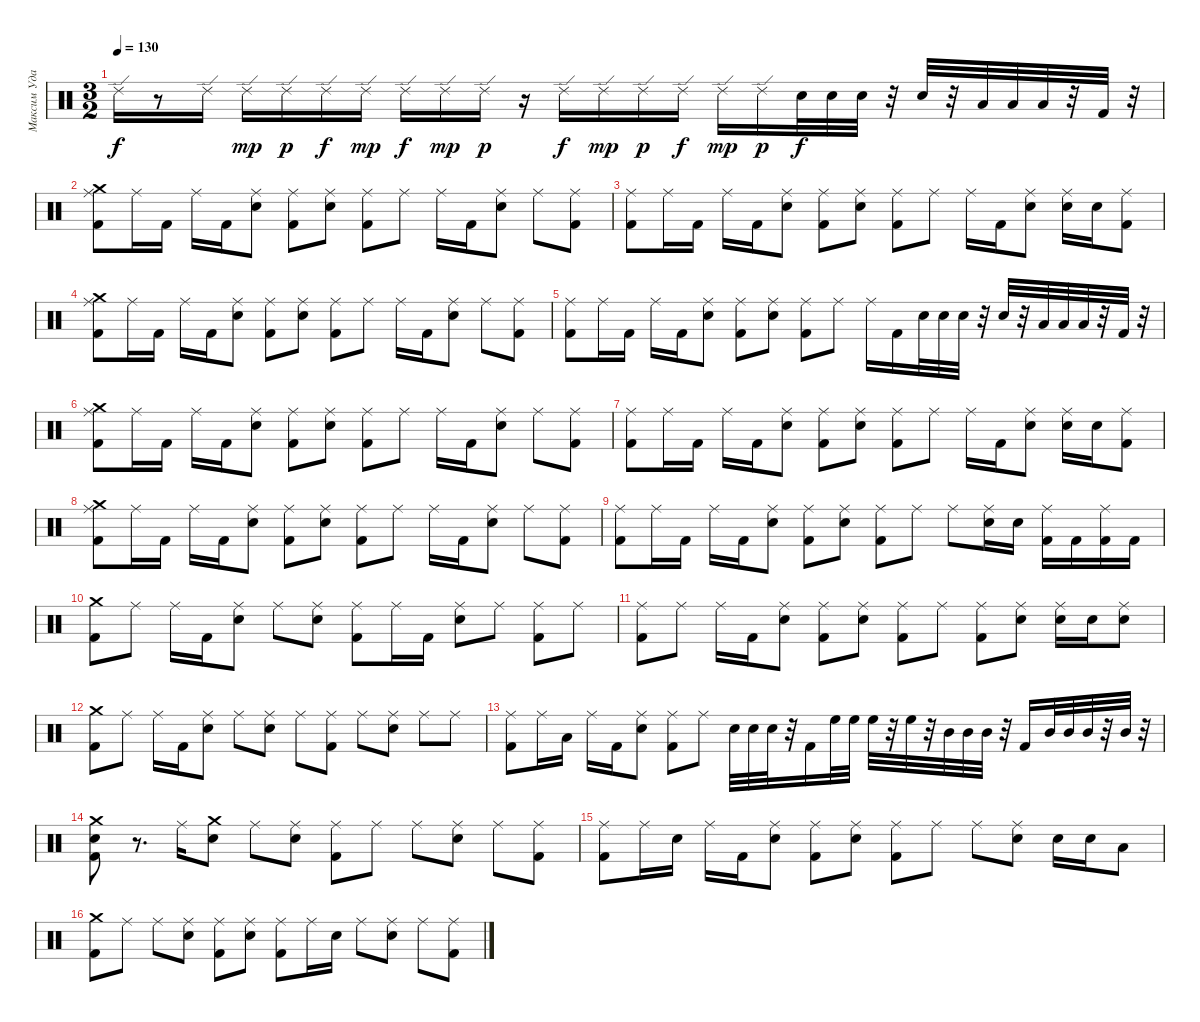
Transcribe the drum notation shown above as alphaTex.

\track ("Максим Удалов" "Максим Уда") {instrument percussion}
\staff {score}
\articulation defaults
\ts (3 2)
\tempo 130
\clef neutral
\ks c "Ride (edge) 2".16{dy f}
r.8 "Ride (edge) 2".16 "Ride (edge) 2".16{dy mp} "Ride (edge) 2".16{dy p} "Ride (edge) 2".16{dy f} "Ride (edge) 2".16{dy mp} "Ride (edge) 2".16{dy f} "Ride (edge) 2".16{dy mp} "Ride (edge) 2".16{dy p} r.16 "Ride (edge) 2".16{dy f} "Ride (edge) 2".16{dy mp} "Ride (edge) 2".16{dy p} "Ride (edge) 2".16{dy f} "Ride (edge) 2".16{dy mp} "Ride (edge) 2".16{dy p} "Electric Snare (hit)".32{dy f} "Electric Snare (hit)".32 "Electric Snare (hit)".32 r.32 "Electric Snare (hit)".32 r.32 "Low Floor Tom (hit)".32 "Low Floor Tom (hit)".32 "Low Floor Tom (hit)".32 r.32 "Kick (hit) 2".32 r.32 |
("Ride (middle)" "Kick (hit) 2" "Crash medium (hit)").8 "Ride (middle)".16 "Kick (hit) 2".16 "Ride (middle)".16 "Kick (hit) 2".16 ("Electric Snare (hit)" "Ride (middle)").8 ("Ride (middle)" "Kick (hit) 2").8 ("Electric Snare (hit)" "Ride (middle)").8 ("Ride (middle)" "Kick (hit) 2").8 "Ride (middle)".8 "Ride (middle)".16 "Kick (hit) 2".16 ("Ride (middle)" "Electric Snare (hit)").8 "Ride (middle)".8 ("Ride (middle)" "Kick (hit) 2").8 |
("Ride (middle)" "Kick (hit) 2").8 "Ride (middle)".16 "Kick (hit) 2".16 "Ride (middle)".16 "Kick (hit) 2".16 ("Ride (middle)" "Electric Snare (hit)").8 ("Kick (hit) 2" "Ride (middle)").8 ("Electric Snare (hit)" "Ride (middle)").8 ("Kick (hit) 2" "Ride (middle)").8 "Ride (middle)".8 "Ride (middle)".16 "Kick (hit) 2".16 ("Electric Snare (hit)" "Ride (middle)").8 ("Electric Snare (hit)" "Ride (middle)").16 "Electric Snare (hit)".16 ("Kick (hit) 2" "Ride (middle)").8 |
("Ride (middle)" "Crash medium (hit)" "Kick (hit) 2").8 "Ride (middle)".16 "Kick (hit) 2".16 "Ride (middle)".16 "Kick (hit) 2".16 ("Ride (middle)" "Electric Snare (hit)").8 ("Ride (middle)" "Kick (hit) 2").8 ("Electric Snare (hit)" "Ride (middle)").8 ("Kick (hit) 2" "Ride (middle)").8 "Ride (middle)".8 "Ride (middle)".16 "Kick (hit) 2".16 ("Ride (middle)" "Electric Snare (hit)").8 "Ride (middle)".8 ("Ride (middle)" "Kick (hit) 2").8 |
("Ride (middle)" "Kick (hit) 2").8 "Ride (middle)".16 "Kick (hit) 2".16 "Ride (middle)".16 "Kick (hit) 2".16 ("Electric Snare (hit)" "Ride (middle)").8 ("Kick (hit) 2" "Ride (middle)").8 ("Ride (middle)" "Electric Snare (hit)").8 ("Ride (middle)" "Kick (hit) 2").8 "Ride (middle)".8 "Ride (middle)".16 "Kick (hit) 2".16 "Electric Snare (hit)".32 "Electric Snare (hit)".32 "Electric Snare (hit)".32 r.32 "Electric Snare (hit)".32 r.32 "Low Floor Tom (hit)".32 "Low Floor Tom (hit)".32 "Low Floor Tom (hit)".32 r.32 "Kick (hit) 2".32 r.32 |
("Kick (hit) 2" "Ride (middle)" "Crash medium (hit)").8 "Ride (middle)".16 "Kick (hit) 2".16 "Ride (middle)".16 "Kick (hit) 2".16 ("Electric Snare (hit)" "Ride (middle)").8 ("Kick (hit) 2" "Ride (middle)").8 ("Electric Snare (hit)" "Ride (middle)").8 ("Ride (middle)" "Kick (hit) 2").8 "Ride (middle)".8 "Ride (middle)".16 "Kick (hit) 2".16 ("Ride (middle)" "Electric Snare (hit)").8 "Ride (middle)".8 ("Kick (hit) 2" "Ride (middle)").8 |
("Ride (middle)" "Kick (hit) 2").8 "Ride (middle)".16 "Kick (hit) 2".16 "Ride (middle)".16 "Kick (hit) 2".16 ("Ride (middle)" "Electric Snare (hit)").8 ("Ride (middle)" "Kick (hit) 2").8 ("Ride (middle)" "Electric Snare (hit)").8 ("Kick (hit) 2" "Ride (middle)").8 "Ride (middle)".8 "Ride (middle)".16 "Kick (hit) 2".16 ("Electric Snare (hit)" "Ride (middle)").8 ("Electric Snare (hit)" "Ride (middle)").16 "Electric Snare (hit)".16 ("Ride (middle)" "Kick (hit) 2").8 |
("Ride (middle)" "Crash medium (hit)" "Kick (hit) 2").8 "Ride (middle)".16 "Kick (hit) 2".16 "Ride (middle)".16 "Kick (hit) 2".16 ("Electric Snare (hit)" "Ride (middle)").8 ("Ride (middle)" "Kick (hit) 2").8 ("Electric Snare (hit)" "Ride (middle)").8 ("Kick (hit) 2" "Ride (middle)").8 "Ride (middle)".8 "Ride (middle)".16 "Kick (hit) 2".16 ("Electric Snare (hit)" "Ride (middle)").8 "Ride (middle)".8 ("Ride (middle)" "Kick (hit) 2").8 |
("Ride (middle)" "Kick (hit) 2").8 "Ride (middle)".16 "Kick (hit) 2".16 "Ride (middle)".16 "Kick (hit) 2".16 ("Ride (middle)" "Electric Snare (hit)").8 ("Kick (hit) 2" "Ride (middle)").8 ("Electric Snare (hit)" "Ride (middle)").8 ("Kick (hit) 2" "Ride (middle)").8 "Ride (middle)".8 "Ride (middle)".8 ("Electric Snare (hit)" "Ride (middle)").16 "Electric Snare (hit)".16 ("Kick (hit) 2" "Ride (middle)").16 "Kick (hit) 2".16 ("Ride (middle)" "Kick (hit) 2").16 "Kick (hit) 2".16 |
("Crash medium (hit)" "Kick (hit) 2").8 "Ride (middle)".8 "Ride (middle)".16 "Kick (hit) 2".16 ("Ride (middle)" "Electric Snare (hit)").8 "Ride (middle)".8 ("Electric Snare (hit)" "Ride (middle)").8 ("Ride (middle)" "Kick (hit) 2").8 "Ride (middle)".16 "Kick (hit) 2".16 ("Electric Snare (hit)" "Ride (middle)").8 "Ride (middle)".8 ("Ride (middle)" "Kick (hit) 2").8 "Ride (middle)".8 |
("Ride (middle)" "Kick (hit) 2").8 "Ride (middle)".8 "Ride (middle)".16 "Kick (hit) 2".16 ("Ride (middle)" "Electric Snare (hit)").8 ("Kick (hit) 2" "Ride (middle)").8 ("Ride (middle)" "Electric Snare (hit)").8 ("Kick (hit) 2" "Ride (middle)").8 "Ride (middle)".8 ("Kick (hit) 2" "Ride (middle)").8 ("Electric Snare (hit)" "Ride (middle)").8 ("Ride (middle)" "Electric Snare (hit)").16 "Electric Snare (hit)".16 ("Ride (middle)" "Electric Snare (hit)").8 |
("Crash medium (hit)" "Kick (hit) 2").8 "Ride (middle)".8 "Ride (middle)".16 "Kick (hit) 2".16 ("Ride (middle)" "Electric Snare (hit)").8 "Ride (middle)".8 ("Ride (middle)" "Electric Snare (hit)").8 "Ride (middle)".8 ("Kick (hit) 2" "Ride (middle)").8 "Ride (middle)".8 ("Electric Snare (hit)" "Ride (middle)").8 "Ride (middle)".8 "Ride (middle)".8 |
("Kick (hit) 2" "Ride (middle)").8 "Ride (middle)".16 "Low Floor Tom (hit)".16 "Ride (middle)".16 "Kick (hit) 2".16 ("Ride (middle)" "Electric Snare (hit)").8 ("Kick (hit) 2" "Ride (middle)").8 "Ride (middle)".8 "Electric Snare (hit)".32 "Electric Snare (hit)".32 "Electric Snare (hit)".32 r.32 "Kick (hit) 2".16 "High Floor Tom (hit)".32 "High Floor Tom (hit)".32 "High Floor Tom (hit)".32 r.32 "High Floor Tom (hit)".32 r.32 "Mid Tom (hit)".32 "Mid Tom (hit)".32 "Mid Tom (hit)".32 r.32 "Kick (hit) 2".16 "Mid Tom (hit)".32 "Mid Tom (hit)".32 "Mid Tom (hit)".32 r.32 "Mid Tom (hit)".32 r.32 |
("Electric Snare (hit)" "Crash medium (hit)" "Kick (hit) 2").8 r.8{d} "Ride (middle)".16 ("Crash medium (hit)" "Electric Snare (hit)").8 "Ride (middle)".8 ("Electric Snare (hit)" "Ride (middle)").8 ("Kick (hit) 2" "Ride (middle)").8 "Ride (middle)".8 "Ride (middle)".8 ("Ride (middle)" "Electric Snare (hit)").8 "Ride (middle)".8 ("Ride (middle)" "Kick (hit) 2").8 |
("Kick (hit) 2" "Ride (middle)").8 "Ride (middle)".16 "Electric Snare (hit)".16 "Ride (middle)".16 "Kick (hit) 2".16 ("Ride (middle)" "Electric Snare (hit)").8 ("Kick (hit) 2" "Ride (middle)").8 ("Ride (middle)" "Electric Snare (hit)").8 ("Kick (hit) 2" "Ride (middle)").8 "Ride (middle)".8 "Ride (middle)".8 ("Electric Snare (hit)" "Ride (middle)").8 "Electric Snare (hit)".16 "Electric Snare (hit)".16 "Low Floor Tom (hit)".8 |
("Kick (hit) 2" "Crash medium (hit)").8 "Ride (middle)".8 "Ride (middle)".8 ("Electric Snare (hit)" "Ride (middle)").8 ("Kick (hit) 2" "Ride (middle)").8 ("Electric Snare (hit)" "Ride (middle)").8 ("Ride (middle)" "Kick (hit) 2").8 "Ride (middle)".16 "Electric Snare (hit)".16 "Ride (middle)".8 ("Ride (middle)" "Electric Snare (hit)").8 "Ride (middle)".8 ("Kick (hit) 2" "Ride (middle)").8
